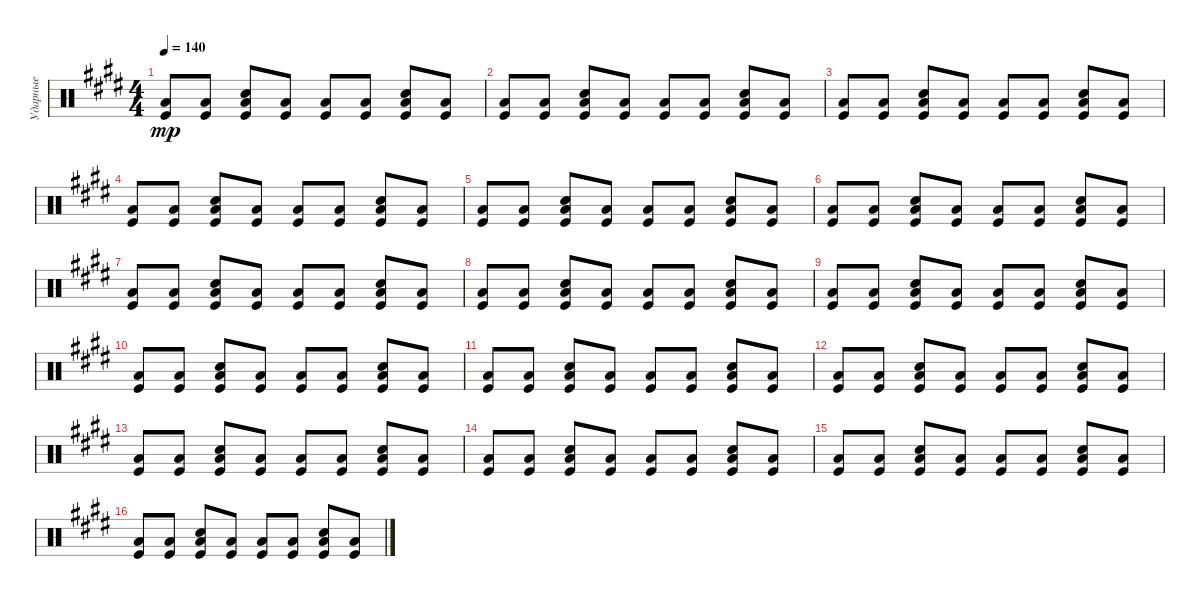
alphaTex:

\track ("Ударные" "Ударные") {instrument percussion}
\staff {score}
\articulation defaults
\ts (4 4)
\tempo 140
\clef neutral
\ks c#minor
("Kick (hit)" "Low Floor Tom (hit)").8{dy mp} ("Kick (hit)" "Low Floor Tom (hit)").8 ("Kick (hit)" "Low Floor Tom (hit)" "Snare (hit) 2").8 ("Kick (hit)" "Low Floor Tom (hit)").8 ("Kick (hit)" "Low Floor Tom (hit)").8 ("Kick (hit)" "Low Floor Tom (hit)").8 ("Kick (hit)" "Low Floor Tom (hit)" "Snare (hit) 2").8 ("Kick (hit)" "Low Floor Tom (hit)").8 |
("Kick (hit)" "Low Floor Tom (hit)").8 ("Kick (hit)" "Low Floor Tom (hit)").8 ("Kick (hit)" "Low Floor Tom (hit)" "Snare (hit) 2").8 ("Kick (hit)" "Low Floor Tom (hit)").8 ("Kick (hit)" "Low Floor Tom (hit)").8 ("Kick (hit)" "Low Floor Tom (hit)").8 ("Kick (hit)" "Low Floor Tom (hit)" "Snare (hit) 2").8 ("Kick (hit)" "Low Floor Tom (hit)").8 |
("Kick (hit)" "Low Floor Tom (hit)").8 ("Kick (hit)" "Low Floor Tom (hit)").8 ("Kick (hit)" "Low Floor Tom (hit)" "Snare (hit) 2").8 ("Kick (hit)" "Low Floor Tom (hit)").8 ("Kick (hit)" "Low Floor Tom (hit)").8 ("Kick (hit)" "Low Floor Tom (hit)").8 ("Kick (hit)" "Low Floor Tom (hit)" "Snare (hit) 2").8 ("Kick (hit)" "Low Floor Tom (hit)").8 |
("Kick (hit)" "Low Floor Tom (hit)").8 ("Kick (hit)" "Low Floor Tom (hit)").8 ("Kick (hit)" "Low Floor Tom (hit)" "Snare (hit) 2").8 ("Kick (hit)" "Low Floor Tom (hit)").8 ("Kick (hit)" "Low Floor Tom (hit)").8 ("Kick (hit)" "Low Floor Tom (hit)").8 ("Kick (hit)" "Low Floor Tom (hit)" "Snare (hit) 2").8 ("Kick (hit)" "Low Floor Tom (hit)").8 |
("Kick (hit)" "Low Floor Tom (hit)").8 ("Kick (hit)" "Low Floor Tom (hit)").8 ("Kick (hit)" "Low Floor Tom (hit)" "Snare (hit) 2").8 ("Kick (hit)" "Low Floor Tom (hit)").8 ("Kick (hit)" "Low Floor Tom (hit)").8 ("Kick (hit)" "Low Floor Tom (hit)").8 ("Kick (hit)" "Low Floor Tom (hit)" "Snare (hit) 2").8 ("Kick (hit)" "Low Floor Tom (hit)").8 |
("Kick (hit)" "Low Floor Tom (hit)").8 ("Kick (hit)" "Low Floor Tom (hit)").8 ("Kick (hit)" "Low Floor Tom (hit)" "Snare (hit) 2").8 ("Kick (hit)" "Low Floor Tom (hit)").8 ("Kick (hit)" "Low Floor Tom (hit)").8 ("Kick (hit)" "Low Floor Tom (hit)").8 ("Kick (hit)" "Low Floor Tom (hit)" "Snare (hit) 2").8 ("Kick (hit)" "Low Floor Tom (hit)").8 |
("Kick (hit)" "Low Floor Tom (hit)").8 ("Kick (hit)" "Low Floor Tom (hit)").8 ("Kick (hit)" "Low Floor Tom (hit)" "Snare (hit) 2").8 ("Kick (hit)" "Low Floor Tom (hit)").8 ("Kick (hit)" "Low Floor Tom (hit)").8 ("Kick (hit)" "Low Floor Tom (hit)").8 ("Kick (hit)" "Low Floor Tom (hit)" "Snare (hit) 2").8 ("Kick (hit)" "Low Floor Tom (hit)").8 |
("Kick (hit)" "Low Floor Tom (hit)").8 ("Kick (hit)" "Low Floor Tom (hit)").8 ("Kick (hit)" "Low Floor Tom (hit)" "Snare (hit) 2").8 ("Kick (hit)" "Low Floor Tom (hit)").8 ("Kick (hit)" "Low Floor Tom (hit)").8 ("Kick (hit)" "Low Floor Tom (hit)").8 ("Kick (hit)" "Low Floor Tom (hit)" "Snare (hit) 2").8 ("Kick (hit)" "Low Floor Tom (hit)").8 |
("Kick (hit)" "Low Floor Tom (hit)").8 ("Kick (hit)" "Low Floor Tom (hit)").8 ("Kick (hit)" "Low Floor Tom (hit)" "Snare (hit) 2").8 ("Kick (hit)" "Low Floor Tom (hit)").8 ("Kick (hit)" "Low Floor Tom (hit)").8 ("Kick (hit)" "Low Floor Tom (hit)").8 ("Kick (hit)" "Low Floor Tom (hit)" "Snare (hit) 2").8 ("Kick (hit)" "Low Floor Tom (hit)").8 |
("Kick (hit)" "Low Floor Tom (hit)").8 ("Kick (hit)" "Low Floor Tom (hit)").8 ("Kick (hit)" "Low Floor Tom (hit)" "Snare (hit) 2").8 ("Kick (hit)" "Low Floor Tom (hit)").8 ("Kick (hit)" "Low Floor Tom (hit)").8 ("Kick (hit)" "Low Floor Tom (hit)").8 ("Kick (hit)" "Low Floor Tom (hit)" "Snare (hit) 2").8 ("Kick (hit)" "Low Floor Tom (hit)").8 |
("Kick (hit)" "Low Floor Tom (hit)").8 ("Kick (hit)" "Low Floor Tom (hit)").8 ("Kick (hit)" "Low Floor Tom (hit)" "Snare (hit) 2").8 ("Kick (hit)" "Low Floor Tom (hit)").8 ("Kick (hit)" "Low Floor Tom (hit)").8 ("Kick (hit)" "Low Floor Tom (hit)").8 ("Kick (hit)" "Low Floor Tom (hit)" "Snare (hit) 2").8 ("Kick (hit)" "Low Floor Tom (hit)").8 |
("Kick (hit)" "Low Floor Tom (hit)").8 ("Kick (hit)" "Low Floor Tom (hit)").8 ("Kick (hit)" "Low Floor Tom (hit)" "Snare (hit) 2").8 ("Kick (hit)" "Low Floor Tom (hit)").8 ("Kick (hit)" "Low Floor Tom (hit)").8 ("Kick (hit)" "Low Floor Tom (hit)").8 ("Kick (hit)" "Low Floor Tom (hit)" "Snare (hit) 2").8 ("Kick (hit)" "Low Floor Tom (hit)").8 |
("Kick (hit)" "Low Floor Tom (hit)").8 ("Kick (hit)" "Low Floor Tom (hit)").8 ("Kick (hit)" "Low Floor Tom (hit)" "Snare (hit) 2").8 ("Kick (hit)" "Low Floor Tom (hit)").8 ("Kick (hit)" "Low Floor Tom (hit)").8 ("Kick (hit)" "Low Floor Tom (hit)").8 ("Kick (hit)" "Low Floor Tom (hit)" "Snare (hit) 2").8 ("Kick (hit)" "Low Floor Tom (hit)").8 |
("Kick (hit)" "Low Floor Tom (hit)").8 ("Kick (hit)" "Low Floor Tom (hit)").8 ("Kick (hit)" "Low Floor Tom (hit)" "Snare (hit) 2").8 ("Kick (hit)" "Low Floor Tom (hit)").8 ("Kick (hit)" "Low Floor Tom (hit)").8 ("Kick (hit)" "Low Floor Tom (hit)").8 ("Kick (hit)" "Low Floor Tom (hit)" "Snare (hit) 2").8 ("Kick (hit)" "Low Floor Tom (hit)").8 |
("Kick (hit)" "Low Floor Tom (hit)").8 ("Kick (hit)" "Low Floor Tom (hit)").8 ("Kick (hit)" "Low Floor Tom (hit)" "Snare (hit) 2").8 ("Kick (hit)" "Low Floor Tom (hit)").8 ("Kick (hit)" "Low Floor Tom (hit)").8 ("Kick (hit)" "Low Floor Tom (hit)").8 ("Kick (hit)" "Low Floor Tom (hit)" "Snare (hit) 2").8 ("Kick (hit)" "Low Floor Tom (hit)").8 |
("Kick (hit)" "Low Floor Tom (hit)").8 ("Kick (hit)" "Low Floor Tom (hit)").8 ("Kick (hit)" "Low Floor Tom (hit)" "Snare (hit) 2").8 ("Kick (hit)" "Low Floor Tom (hit)").8 ("Kick (hit)" "Low Floor Tom (hit)").8 ("Kick (hit)" "Low Floor Tom (hit)").8 ("Kick (hit)" "Low Floor Tom (hit)" "Snare (hit) 2").8 ("Kick (hit)" "Low Floor Tom (hit)").8
